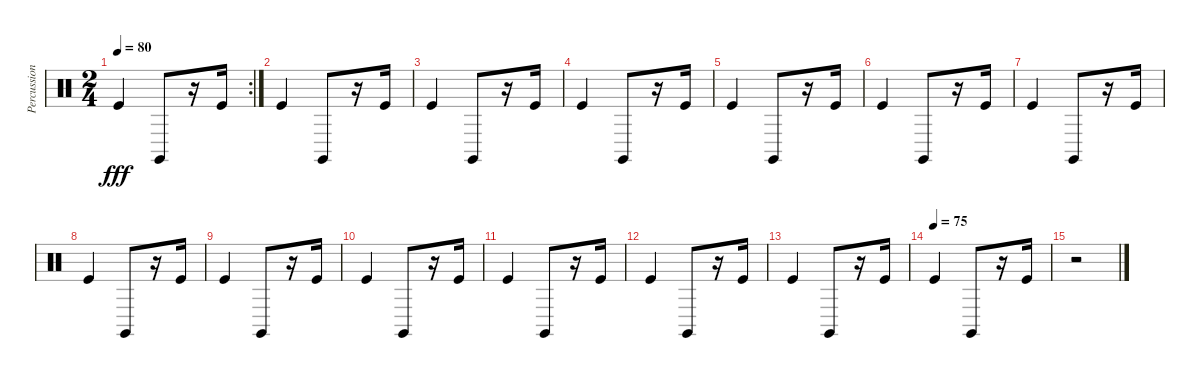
\track ("Percussions" "Percussion") {instrument percussion}
\staff {score}
\articulation defaults
\rc 2
\ts (2 4)
\tempo 80
\clef neutral
\ks c "Kick (hit)".4{dy fff} "Claves (hit)".8
r.16 "Kick (hit)".16 |
"Kick (hit)".4 "Claves (hit)".8 r.16 "Kick (hit)".16 |
"Kick (hit)".4 "Claves (hit)".8 r.16 "Kick (hit)".16 |
"Kick (hit)".4 "Claves (hit)".8 r.16 "Kick (hit)".16 |
"Kick (hit)".4 "Claves (hit)".8 r.16 "Kick (hit)".16 |
"Kick (hit)".4 "Claves (hit)".8 r.16 "Kick (hit)".16 |
"Kick (hit)".4 "Claves (hit)".8 r.16 "Kick (hit)".16 |
"Kick (hit)".4 "Claves (hit)".8 r.16 "Kick (hit)".16 |
"Kick (hit)".4 "Claves (hit)".8 r.16 "Kick (hit)".16 |
"Kick (hit)".4 "Claves (hit)".8 r.16 "Kick (hit)".16 |
"Kick (hit)".4 "Claves (hit)".8 r.16 "Kick (hit)".16 |
"Kick (hit)".4 "Claves (hit)".8 r.16 "Kick (hit)".16 |
"Kick (hit)".4 "Claves (hit)".8 r.16 "Kick (hit)".16 |
\tempo (75)
"Kick (hit)".4 "Claves (hit)".8 r.16 "Kick (hit)".16 |
r.2
